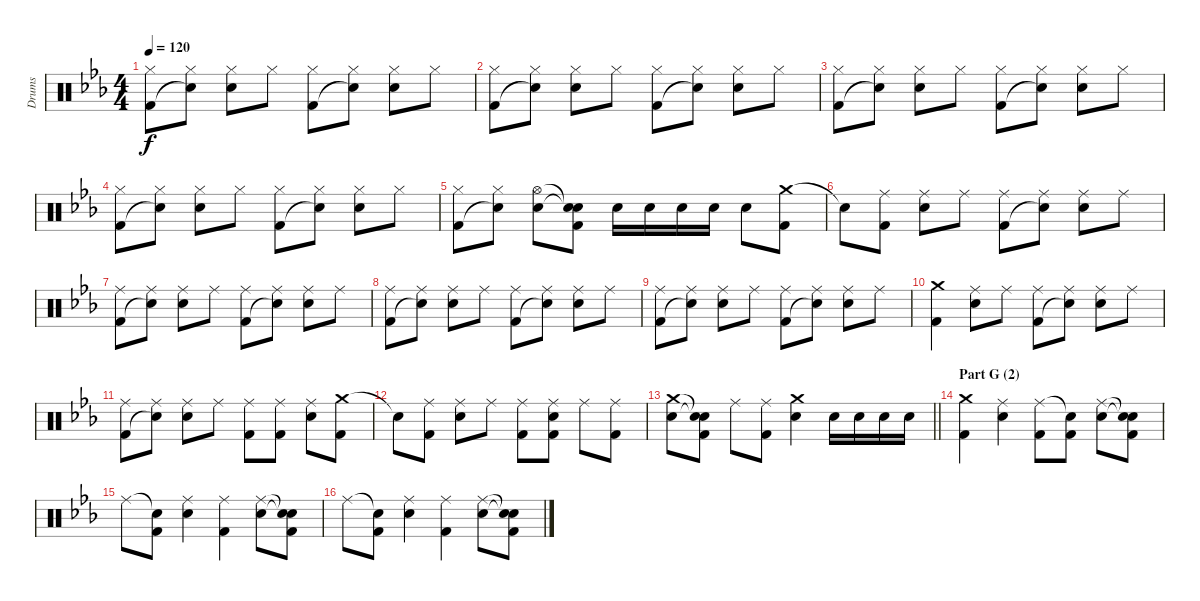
\track ("Drums" "Drums") {instrument percussion}
\staff {score}
\articulation defaults
\ts (4 4)
\tempo 120
\clef neutral
\ks eb
("Hi-Hat (closed)" "Kick (hit) 2").8{dy f} ("Hi-Hat (closed)" "Snare (hit)"{t}).8 ("Hi-Hat (closed)" "Electric Snare (hit)").8 "Hi-Hat (closed)".8 ("Hi-Hat (closed)" "Kick (hit) 2").8 ("Hi-Hat (closed)" "Snare (hit)"{t}).8 ("Hi-Hat (closed)" "Electric Snare (hit)").8 "Hi-Hat (closed)".8 |
("Hi-Hat (closed)" "Kick (hit) 2").8 ("Hi-Hat (closed)" "Snare (hit)"{t}).8 ("Hi-Hat (closed)" "Electric Snare (hit)").8 "Hi-Hat (closed)".8 ("Hi-Hat (closed)" "Kick (hit) 2").8 ("Hi-Hat (closed)" "Snare (hit)"{t}).8 ("Hi-Hat (closed)" "Electric Snare (hit)").8 "Hi-Hat (closed)".8 |
("Hi-Hat (closed)" "Kick (hit) 2").8 ("Hi-Hat (closed)" "Snare (hit)"{t}).8 ("Hi-Hat (closed)" "Electric Snare (hit)").8 "Hi-Hat (closed)".8 ("Hi-Hat (closed)" "Kick (hit) 2").8 ("Hi-Hat (closed)" "Snare (hit)"{t}).8 ("Hi-Hat (closed)" "Electric Snare (hit)").8 "Hi-Hat (closed)".8 |
("Hi-Hat (closed)" "Kick (hit) 2").8 ("Hi-Hat (closed)" "Snare (hit)"{t}).8 ("Hi-Hat (closed)" "Electric Snare (hit)").8 "Hi-Hat (closed)".8 ("Hi-Hat (closed)" "Kick (hit) 2").8 ("Hi-Hat (closed)" "Snare (hit)"{t}).8 ("Hi-Hat (closed)" "Electric Snare (hit)").8 "Hi-Hat (closed)".8 |
("Hi-Hat (closed)" "Kick (hit) 2").8 ("Hi-Hat (closed)" "Snare (hit)"{t}).8 ("Hi-Hat (open)" "Electric Snare (hit)").8 ("Snare (hit)"{t} "Snare (hit)"{t} "Kick (hit) 2").8 "Electric Snare (hit)".16 "Electric Snare (hit)".16 "Electric Snare (hit)".16 "Electric Snare (hit)".16 "Electric Snare (hit)".8 ("Crash medium (hit)" "Kick (hit) 2").8 |
"Snare (hit)"{t}.8 ("Ride (middle)" "Kick (hit) 2").8 ("Ride (middle)" "Electric Snare (hit)").8 "Ride (middle)".8 ("Ride (middle)" "Kick (hit) 2").8 ("Ride (middle)" "Snare (hit)"{t}).8 ("Ride (middle)" "Electric Snare (hit)").8 "Ride (middle)".8 |
("Ride (middle)" "Kick (hit) 2").8 ("Ride (middle)" "Snare (hit)"{t}).8 ("Ride (middle)" "Electric Snare (hit)").8 "Ride (middle)".8 ("Ride (middle)" "Kick (hit) 2").8 ("Ride (middle)" "Snare (hit)"{t}).8 ("Ride (middle)" "Electric Snare (hit)").8 "Ride (middle)".8 |
("Ride (middle)" "Kick (hit) 2").8 ("Ride (middle)" "Snare (hit)"{t}).8 ("Ride (middle)" "Electric Snare (hit)").8 "Ride (middle)".8 ("Ride (middle)" "Kick (hit) 2").8 ("Ride (middle)" "Snare (hit)"{t}).8 ("Ride (middle)" "Electric Snare (hit)").8 "Ride (middle)".8 |
("Ride (middle)" "Kick (hit) 2").8 ("Ride (middle)" "Snare (hit)"{t}).8 ("Ride (middle)" "Electric Snare (hit)").8 "Ride (middle)".8 ("Ride (middle)" "Kick (hit) 2").8 ("Ride (middle)" "Snare (hit)"{t}).8 ("Ride (middle)" "Electric Snare (hit)").8 "Ride (middle)".8 |
("Crash medium (hit)" "Kick (hit) 2").4 ("Ride (middle)" "Electric Snare (hit)").8 "Ride (middle)".8 ("Ride (middle)" "Kick (hit) 2").8 ("Ride (middle)" "Snare (hit)"{t}).8 ("Ride (middle)" "Electric Snare (hit)").8 "Ride (middle)".8 |
("Ride (middle)" "Kick (hit) 2").8 ("Ride (middle)" "Snare (hit)"{t}).8 ("Ride (middle)" "Electric Snare (hit)").8 "Ride (middle)".8 ("Ride (middle)" "Kick (hit) 2").8 ("Ride (middle)" "Kick (hit) 2").8 ("Ride (middle)" "Electric Snare (hit)").8 ("Crash medium (hit)" "Kick (hit) 2").8 |
"Snare (hit)"{t}.8 ("Ride (middle)" "Kick (hit) 2").8 ("Ride (middle)" "Electric Snare (hit)").8 "Ride (middle)".8 ("Ride (middle)" "Kick (hit) 2").8 ("Ride (middle)" "Electric Snare (hit)" "Kick (hit) 2").8 "Ride (middle)".8 ("Ride (middle)" "Kick (hit) 2").8 |
\barLineRight lightlight
("Crash medium (hit)" "Electric Snare (hit)").8 ("Snare (hit)"{t} "Snare (hit)"{t} "Kick (hit) 2").8 "Ride (middle)".8 ("Ride (middle)" "Kick (hit) 2").8 ("Crash medium (hit)" "Electric Snare (hit)").4 "Electric Snare (hit)".16 "Electric Snare (hit)".16 "Electric Snare (hit)".16 "Electric Snare (hit)".16 |
\section ("" "Part G (2)")
("Crash medium (hit)" "Kick (hit) 2").4 ("Ride (middle)" "Electric Snare (hit)").4 ("Ride (middle)" "Kick (hit) 2").8 ("Snare (hit)"{t} "Kick (hit) 2").8 ("Ride (middle)" "Electric Snare (hit)").8 ("Snare (hit)"{t} "Snare (hit)"{t} "Kick (hit) 2").8 |
"Ride (middle)".8 ("Snare (hit)"{t} "Kick (hit) 2").8 ("Ride (middle)" "Electric Snare (hit)").4 ("Ride (middle)" "Kick (hit) 2").4 ("Ride (middle)" "Electric Snare (hit)").8 ("Snare (hit)"{t} "Snare (hit)"{t} "Kick (hit) 2").8 |
"Ride (middle)".8 ("Snare (hit)"{t} "Kick (hit) 2").8 ("Ride (middle)" "Electric Snare (hit)").4 ("Ride (middle)" "Kick (hit) 2").4 ("Ride (middle)" "Electric Snare (hit)").8 ("Snare (hit)"{t} "Snare (hit)"{t} "Kick (hit) 2").8
